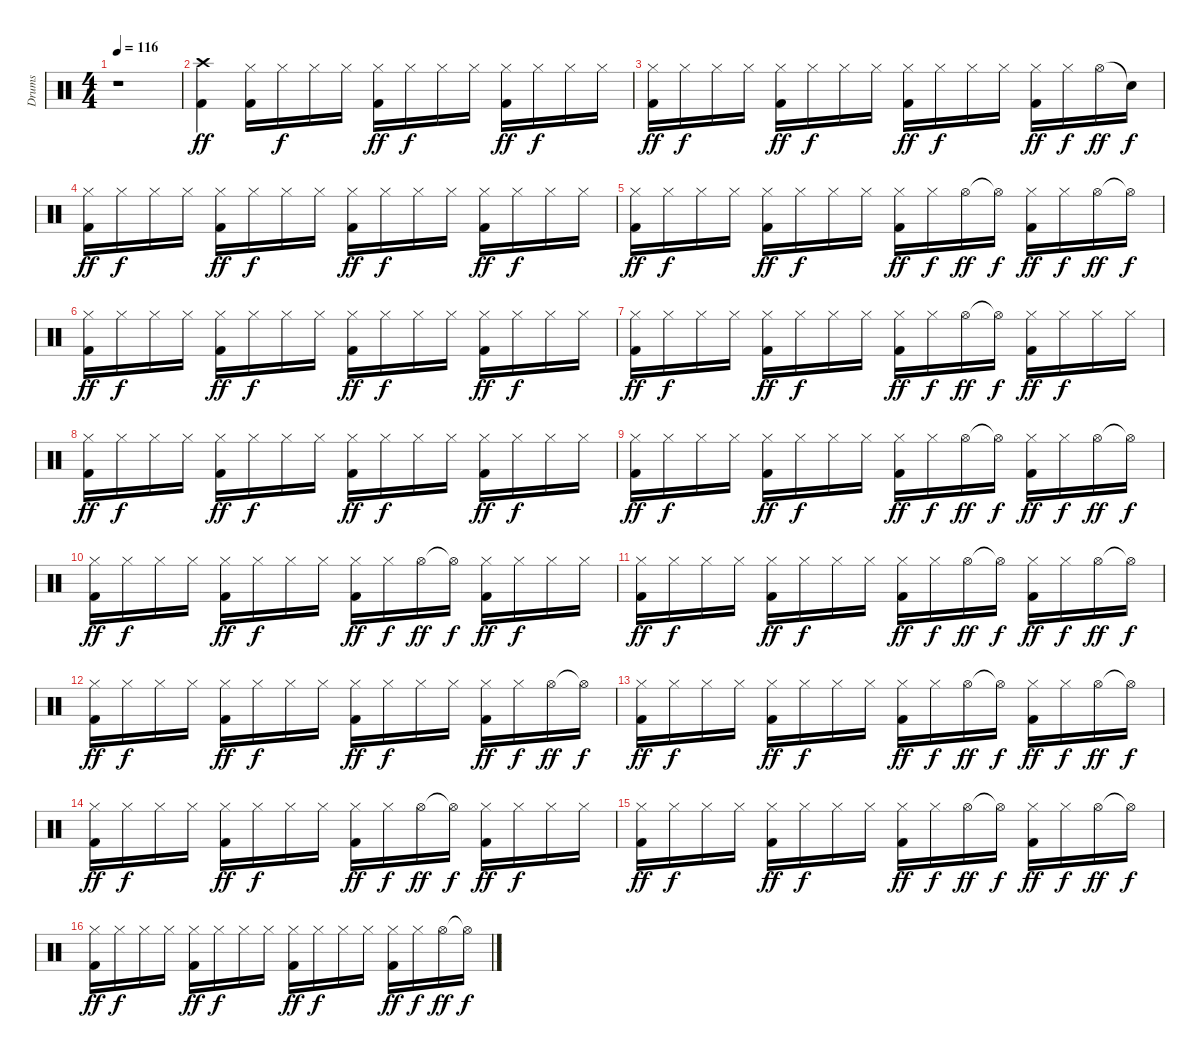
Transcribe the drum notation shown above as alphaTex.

\track ("Drums" "Drums") {instrument percussion}
\staff {score}
\articulation defaults
\ts (4 4)
\tempo 116
\clef neutral
\ks c
r.1{dy ff} |
("Crash high (hit)" "Kick (hit) 2").4 ("Hi-Hat (closed)" "Kick (hit) 2").16 "Hi-Hat (closed)".16{dy f} "Hi-Hat (closed)".16 "Hi-Hat (closed)".16 ("Hi-Hat (closed)" "Kick (hit) 2").16{dy ff} "Hi-Hat (closed)".16{dy f} "Hi-Hat (closed)".16 "Hi-Hat (closed)".16 ("Hi-Hat (closed)" "Kick (hit) 2").16{dy ff} "Hi-Hat (closed)".16{dy f} "Hi-Hat (closed)".16 "Hi-Hat (closed)".16 |
("Hi-Hat (closed)" "Kick (hit) 2").16{dy ff} "Hi-Hat (closed)".16{dy f} "Hi-Hat (closed)".16 "Hi-Hat (closed)".16 ("Hi-Hat (closed)" "Kick (hit) 2").16{dy ff} "Hi-Hat (closed)".16{dy f} "Hi-Hat (closed)".16 "Hi-Hat (closed)".16 ("Hi-Hat (closed)" "Kick (hit) 2").16{dy ff} "Hi-Hat (closed)".16{dy f} "Hi-Hat (closed)".16 "Hi-Hat (closed)".16 ("Hi-Hat (closed)" "Kick (hit) 2").16{dy ff} "Hi-Hat (closed)".16{dy f} "Hi-Hat (open)".16{dy ff} "Snare (hit)"{t}.16{dy f} |
("Hi-Hat (closed)" "Kick (hit) 2").16{dy ff} "Hi-Hat (closed)".16{dy f} "Hi-Hat (closed)".16 "Hi-Hat (closed)".16 ("Hi-Hat (closed)" "Kick (hit) 2").16{dy ff} "Hi-Hat (closed)".16{dy f} "Hi-Hat (closed)".16 "Hi-Hat (closed)".16 ("Hi-Hat (closed)" "Kick (hit) 2").16{dy ff} "Hi-Hat (closed)".16{dy f} "Hi-Hat (closed)".16 "Hi-Hat (closed)".16 ("Hi-Hat (closed)" "Kick (hit) 2").16{dy ff} "Hi-Hat (closed)".16{dy f} "Hi-Hat (closed)".16 "Hi-Hat (closed)".16 |
("Hi-Hat (closed)" "Kick (hit) 2").16{dy ff} "Hi-Hat (closed)".16{dy f} "Hi-Hat (closed)".16 "Hi-Hat (closed)".16 ("Hi-Hat (closed)" "Kick (hit) 2").16{dy ff} "Hi-Hat (closed)".16{dy f} "Hi-Hat (closed)".16 "Hi-Hat (closed)".16 ("Hi-Hat (closed)" "Kick (hit) 2").16{dy ff} "Hi-Hat (closed)".16{dy f} "Hi-Hat (open)".16{dy ff} "Hi-Hat (open)"{t}.16{dy f} ("Hi-Hat (closed)" "Kick (hit) 2").16{dy ff} "Hi-Hat (closed)".16{dy f} "Hi-Hat (open)".16{dy ff} "Hi-Hat (open)"{t}.16{dy f} |
("Hi-Hat (closed)" "Kick (hit) 2").16{dy ff} "Hi-Hat (closed)".16{dy f} "Hi-Hat (closed)".16 "Hi-Hat (closed)".16 ("Hi-Hat (closed)" "Kick (hit) 2").16{dy ff} "Hi-Hat (closed)".16{dy f} "Hi-Hat (closed)".16 "Hi-Hat (closed)".16 ("Hi-Hat (closed)" "Kick (hit) 2").16{dy ff} "Hi-Hat (closed)".16{dy f} "Hi-Hat (closed)".16 "Hi-Hat (closed)".16 ("Hi-Hat (closed)" "Kick (hit) 2").16{dy ff} "Hi-Hat (closed)".16{dy f} "Hi-Hat (closed)".16 "Hi-Hat (closed)".16 |
("Hi-Hat (closed)" "Kick (hit) 2").16{dy ff} "Hi-Hat (closed)".16{dy f} "Hi-Hat (closed)".16 "Hi-Hat (closed)".16 ("Hi-Hat (closed)" "Kick (hit) 2").16{dy ff} "Hi-Hat (closed)".16{dy f} "Hi-Hat (closed)".16 "Hi-Hat (closed)".16 ("Hi-Hat (closed)" "Kick (hit) 2").16{dy ff} "Hi-Hat (closed)".16{dy f} "Hi-Hat (open)".16{dy ff} "Hi-Hat (open)"{t}.16{dy f} ("Hi-Hat (closed)" "Kick (hit) 2").16{dy ff} "Hi-Hat (closed)".16{dy f} "Hi-Hat (closed)".16 "Hi-Hat (closed)".16 |
("Hi-Hat (closed)" "Kick (hit) 2").16{dy ff} "Hi-Hat (closed)".16{dy f} "Hi-Hat (closed)".16 "Hi-Hat (closed)".16 ("Hi-Hat (closed)" "Kick (hit) 2").16{dy ff} "Hi-Hat (closed)".16{dy f} "Hi-Hat (closed)".16 "Hi-Hat (closed)".16 ("Hi-Hat (closed)" "Kick (hit) 2").16{dy ff} "Hi-Hat (closed)".16{dy f} "Hi-Hat (closed)".16 "Hi-Hat (closed)".16 ("Hi-Hat (closed)" "Kick (hit) 2").16{dy ff} "Hi-Hat (closed)".16{dy f} "Hi-Hat (closed)".16 "Hi-Hat (closed)".16 |
("Hi-Hat (closed)" "Kick (hit) 2").16{dy ff} "Hi-Hat (closed)".16{dy f} "Hi-Hat (closed)".16 "Hi-Hat (closed)".16 ("Hi-Hat (closed)" "Kick (hit) 2").16{dy ff} "Hi-Hat (closed)".16{dy f} "Hi-Hat (closed)".16 "Hi-Hat (closed)".16 ("Hi-Hat (closed)" "Kick (hit) 2").16{dy ff} "Hi-Hat (closed)".16{dy f} "Hi-Hat (open)".16{dy ff} "Hi-Hat (open)"{t}.16{dy f} ("Hi-Hat (closed)" "Kick (hit) 2").16{dy ff} "Hi-Hat (closed)".16{dy f} "Hi-Hat (open)".16{dy ff} "Hi-Hat (open)"{t}.16{dy f} |
("Hi-Hat (closed)" "Kick (hit) 2").16{dy ff} "Hi-Hat (closed)".16{dy f} "Hi-Hat (closed)".16 "Hi-Hat (closed)".16 ("Hi-Hat (closed)" "Kick (hit) 2").16{dy ff} "Hi-Hat (closed)".16{dy f} "Hi-Hat (closed)".16 "Hi-Hat (closed)".16 ("Hi-Hat (closed)" "Kick (hit) 2").16{dy ff} "Hi-Hat (closed)".16{dy f} "Hi-Hat (open)".16{dy ff} "Hi-Hat (open)"{t}.16{dy f} ("Hi-Hat (closed)" "Kick (hit) 2").16{dy ff} "Hi-Hat (closed)".16{dy f} "Hi-Hat (closed)".16 "Hi-Hat (closed)".16 |
("Hi-Hat (closed)" "Kick (hit) 2").16{dy ff} "Hi-Hat (closed)".16{dy f} "Hi-Hat (closed)".16 "Hi-Hat (closed)".16 ("Hi-Hat (closed)" "Kick (hit) 2").16{dy ff} "Hi-Hat (closed)".16{dy f} "Hi-Hat (closed)".16 "Hi-Hat (closed)".16 ("Hi-Hat (closed)" "Kick (hit) 2").16{dy ff} "Hi-Hat (closed)".16{dy f} "Hi-Hat (open)".16{dy ff} "Hi-Hat (open)"{t}.16{dy f} ("Hi-Hat (closed)" "Kick (hit) 2").16{dy ff} "Hi-Hat (closed)".16{dy f} "Hi-Hat (open)".16{dy ff} "Hi-Hat (open)"{t}.16{dy f} |
("Hi-Hat (closed)" "Kick (hit) 2").16{dy ff} "Hi-Hat (closed)".16{dy f} "Hi-Hat (closed)".16 "Hi-Hat (closed)".16 ("Hi-Hat (closed)" "Kick (hit) 2").16{dy ff} "Hi-Hat (closed)".16{dy f} "Hi-Hat (closed)".16 "Hi-Hat (closed)".16 ("Hi-Hat (closed)" "Kick (hit) 2").16{dy ff} "Hi-Hat (closed)".16{dy f} "Hi-Hat (closed)".16 "Hi-Hat (closed)".16 ("Hi-Hat (closed)" "Kick (hit) 2").16{dy ff} "Hi-Hat (closed)".16{dy f} "Hi-Hat (open)".16{dy ff} "Hi-Hat (open)"{t}.16{dy f} |
("Hi-Hat (closed)" "Kick (hit) 2").16{dy ff} "Hi-Hat (closed)".16{dy f} "Hi-Hat (closed)".16 "Hi-Hat (closed)".16 ("Hi-Hat (closed)" "Kick (hit) 2").16{dy ff} "Hi-Hat (closed)".16{dy f} "Hi-Hat (closed)".16 "Hi-Hat (closed)".16 ("Hi-Hat (closed)" "Kick (hit) 2").16{dy ff} "Hi-Hat (closed)".16{dy f} "Hi-Hat (open)".16{dy ff} "Hi-Hat (open)"{t}.16{dy f} ("Hi-Hat (closed)" "Kick (hit) 2").16{dy ff} "Hi-Hat (closed)".16{dy f} "Hi-Hat (open)".16{dy ff} "Hi-Hat (open)"{t}.16{dy f} |
("Hi-Hat (closed)" "Kick (hit) 2").16{dy ff} "Hi-Hat (closed)".16{dy f} "Hi-Hat (closed)".16 "Hi-Hat (closed)".16 ("Hi-Hat (closed)" "Kick (hit) 2").16{dy ff} "Hi-Hat (closed)".16{dy f} "Hi-Hat (closed)".16 "Hi-Hat (closed)".16 ("Hi-Hat (closed)" "Kick (hit) 2").16{dy ff} "Hi-Hat (closed)".16{dy f} "Hi-Hat (open)".16{dy ff} "Hi-Hat (open)"{t}.16{dy f} ("Hi-Hat (closed)" "Kick (hit) 2").16{dy ff} "Hi-Hat (closed)".16{dy f} "Hi-Hat (closed)".16 "Hi-Hat (closed)".16 |
("Hi-Hat (closed)" "Kick (hit) 2").16{dy ff} "Hi-Hat (closed)".16{dy f} "Hi-Hat (closed)".16 "Hi-Hat (closed)".16 ("Hi-Hat (closed)" "Kick (hit) 2").16{dy ff} "Hi-Hat (closed)".16{dy f} "Hi-Hat (closed)".16 "Hi-Hat (closed)".16 ("Hi-Hat (closed)" "Kick (hit) 2").16{dy ff} "Hi-Hat (closed)".16{dy f} "Hi-Hat (open)".16{dy ff} "Hi-Hat (open)"{t}.16{dy f} ("Hi-Hat (closed)" "Kick (hit) 2").16{dy ff} "Hi-Hat (closed)".16{dy f} "Hi-Hat (open)".16{dy ff} "Hi-Hat (open)"{t}.16{dy f} |
("Hi-Hat (closed)" "Kick (hit) 2").16{dy ff} "Hi-Hat (closed)".16{dy f} "Hi-Hat (closed)".16 "Hi-Hat (closed)".16 ("Hi-Hat (closed)" "Kick (hit) 2").16{dy ff} "Hi-Hat (closed)".16{dy f} "Hi-Hat (closed)".16 "Hi-Hat (closed)".16 ("Hi-Hat (closed)" "Kick (hit) 2").16{dy ff} "Hi-Hat (closed)".16{dy f} "Hi-Hat (closed)".16 "Hi-Hat (closed)".16 ("Hi-Hat (closed)" "Kick (hit) 2").16{dy ff} "Hi-Hat (closed)".16{dy f} "Hi-Hat (open)".16{dy ff} "Hi-Hat (open)"{t}.16{dy f}
